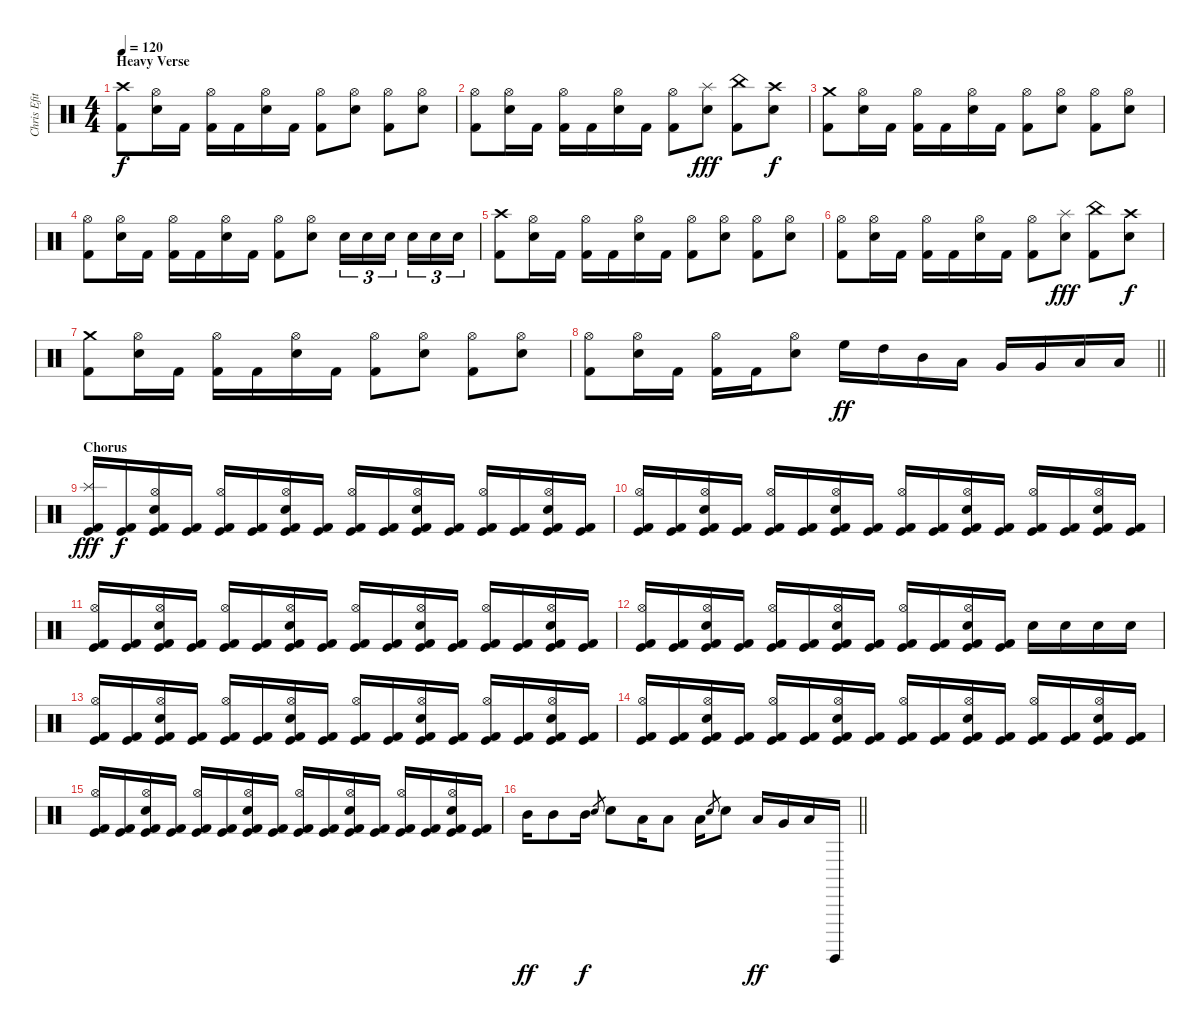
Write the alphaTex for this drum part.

\track ("Chris Efithimiadis (drums)" "Chris Efit") {instrument percussion}
\staff {score}
\articulation defaults
\ts (4 4)
\section ("" "Heavy Verse")
\tempo 120
\clef neutral
\ks c
("Crash high (hit)" "Kick (hit) 2").8{dy f} ("Hi-Hat (open)" "Snare (hit) 2").16 "Kick (hit) 2".16 ("Hi-Hat (open)" "Kick (hit) 2").16 "Kick (hit) 2".16 ("Hi-Hat (open)" "Snare (hit) 2").16 "Kick (hit) 2".16 ("Hi-Hat (open)" "Kick (hit) 2").8 ("Hi-Hat (open)" "Snare (hit) 2").8 ("Hi-Hat (open)" "Kick (hit) 2").8 ("Hi-Hat (open)" "Snare (hit) 2").8 |
("Hi-Hat (open)" "Kick (hit) 2").8 ("Hi-Hat (open)" "Snare (hit) 2").16 "Kick (hit) 2".16 ("Hi-Hat (open)" "Kick (hit) 2").16 "Kick (hit) 2".16 ("Hi-Hat (open)" "Snare (hit) 2").16 "Kick (hit) 2".16 ("Hi-Hat (open)" "Kick (hit) 2").8 ("Splash (hit)" "Snare (hit) 2").8{dy fff} ("China (hit)" "Kick (hit) 2").8 ("Crash high (hit)" "Snare (hit) 2").8{dy f} |
("Crash medium (hit)" "Kick (hit) 2").8 ("Hi-Hat (open)" "Snare (hit) 2").16 "Kick (hit) 2".16 ("Hi-Hat (open)" "Kick (hit) 2").16 "Kick (hit) 2".16 ("Hi-Hat (open)" "Snare (hit) 2").16 "Kick (hit) 2".16 ("Hi-Hat (open)" "Kick (hit) 2").8 ("Hi-Hat (open)" "Snare (hit) 2").8 ("Hi-Hat (open)" "Kick (hit) 2").8 ("Hi-Hat (open)" "Snare (hit) 2").8 |
("Hi-Hat (open)" "Kick (hit) 2").8 ("Hi-Hat (open)" "Snare (hit) 2").16 "Kick (hit) 2".16 ("Hi-Hat (open)" "Kick (hit) 2").16 "Kick (hit) 2".16 ("Hi-Hat (open)" "Snare (hit) 2").16 "Kick (hit) 2".16 ("Hi-Hat (open)" "Kick (hit) 2").8 ("Hi-Hat (open)" "Snare (hit) 2").8 "Snare (hit) 2".16{tu (3 2)} "Snare (hit) 2".16{tu (3 2)} "Snare (hit) 2".16{tu (3 2) beam splitsecondary} "Snare (hit) 2".16{tu (3 2)} "Snare (hit) 2".16{tu (3 2)} "Snare (hit) 2".16{tu (3 2)} |
("Crash high (hit)" "Kick (hit) 2").8 ("Hi-Hat (open)" "Snare (hit) 2").16 "Kick (hit) 2".16 ("Hi-Hat (open)" "Kick (hit) 2").16 "Kick (hit) 2".16 ("Hi-Hat (open)" "Snare (hit) 2").16 "Kick (hit) 2".16 ("Hi-Hat (open)" "Kick (hit) 2").8 ("Hi-Hat (open)" "Snare (hit) 2").8 ("Hi-Hat (open)" "Kick (hit) 2").8 ("Hi-Hat (open)" "Snare (hit) 2").8 |
("Hi-Hat (open)" "Kick (hit) 2").8 ("Hi-Hat (open)" "Snare (hit) 2").16 "Kick (hit) 2".16 ("Hi-Hat (open)" "Kick (hit) 2").16 "Kick (hit) 2".16 ("Hi-Hat (open)" "Snare (hit) 2").16 "Kick (hit) 2".16 ("Hi-Hat (open)" "Kick (hit) 2").8 ("Splash (hit)" "Snare (hit) 2").8{dy fff} ("China (hit)" "Kick (hit) 2").8 ("Crash high (hit)" "Snare (hit) 2").8{dy f} |
("Crash medium (hit)" "Kick (hit) 2").8 ("Hi-Hat (open)" "Snare (hit) 2").16 "Kick (hit) 2".16 ("Hi-Hat (open)" "Kick (hit) 2").16 "Kick (hit) 2".16 ("Hi-Hat (open)" "Snare (hit) 2").16 "Kick (hit) 2".16 ("Hi-Hat (open)" "Kick (hit) 2").8 ("Hi-Hat (open)" "Snare (hit) 2").8 ("Hi-Hat (open)" "Kick (hit) 2").8 ("Hi-Hat (open)" "Snare (hit) 2").8 |
\barLineRight lightlight
("Hi-Hat (open)" "Kick (hit) 2").8 ("Hi-Hat (open)" "Snare (hit) 2").16 "Kick (hit) 2".16 ("Hi-Hat (open)" "Kick (hit) 2").16 "Kick (hit) 2".16 ("Hi-Hat (open)" "Snare (hit) 2").8 "High Floor Tom (hit)".16{dy ff} "High Tom (hit)".16 "Mid Tom (hit)".16 "Low Tom (hit)".16 "Very Low Tom (hit)".16 "Very Low Tom (hit)".16 "Low Floor Tom (hit)".16 "Low Floor Tom (hit)".16 |
\section ("" "Chorus")
("Splash (hit)" "Kick (hit)" "Kick (hit) 2").16{dy fff} ("Kick (hit)" "Kick (hit) 2").16{dy f} ("Hi-Hat (open)" "Snare (hit) 2" "Kick (hit)" "Kick (hit) 2").16 ("Kick (hit)" "Kick (hit) 2").16 ("Hi-Hat (open)" "Kick (hit)" "Kick (hit) 2").16 ("Kick (hit)" "Kick (hit) 2").16 ("Hi-Hat (open)" "Snare (hit) 2" "Kick (hit)" "Kick (hit) 2").16 ("Kick (hit)" "Kick (hit) 2").16 ("Hi-Hat (open)" "Kick (hit)" "Kick (hit) 2").16 ("Kick (hit)" "Kick (hit) 2").16 ("Hi-Hat (open)" "Snare (hit) 2" "Kick (hit)" "Kick (hit) 2").16 ("Kick (hit)" "Kick (hit) 2").16 ("Hi-Hat (open)" "Kick (hit)" "Kick (hit) 2").16 ("Kick (hit)" "Kick (hit) 2").16 ("Hi-Hat (open)" "Snare (hit) 2" "Kick (hit)" "Kick (hit) 2").16 ("Kick (hit)" "Kick (hit) 2").16 |
("Hi-Hat (open)" "Kick (hit)" "Kick (hit) 2").16 ("Kick (hit)" "Kick (hit) 2").16 ("Hi-Hat (open)" "Snare (hit) 2" "Kick (hit)" "Kick (hit) 2").16 ("Kick (hit)" "Kick (hit) 2").16 ("Hi-Hat (open)" "Kick (hit)" "Kick (hit) 2").16 ("Kick (hit)" "Kick (hit) 2").16 ("Hi-Hat (open)" "Snare (hit) 2" "Kick (hit)" "Kick (hit) 2").16 ("Kick (hit)" "Kick (hit) 2").16 ("Hi-Hat (open)" "Kick (hit)" "Kick (hit) 2").16 ("Kick (hit)" "Kick (hit) 2").16 ("Hi-Hat (open)" "Snare (hit) 2" "Kick (hit)" "Kick (hit) 2").16 ("Kick (hit)" "Kick (hit) 2").16 ("Hi-Hat (open)" "Kick (hit)" "Kick (hit) 2").16 ("Kick (hit)" "Kick (hit) 2").16 ("Hi-Hat (open)" "Snare (hit) 2" "Kick (hit)" "Kick (hit) 2").16 ("Kick (hit)" "Kick (hit) 2").16 |
("Hi-Hat (open)" "Kick (hit)" "Kick (hit) 2").16 ("Kick (hit)" "Kick (hit) 2").16 ("Hi-Hat (open)" "Snare (hit) 2" "Kick (hit)" "Kick (hit) 2").16 ("Kick (hit)" "Kick (hit) 2").16 ("Hi-Hat (open)" "Kick (hit)" "Kick (hit) 2").16 ("Kick (hit)" "Kick (hit) 2").16 ("Hi-Hat (open)" "Snare (hit) 2" "Kick (hit)" "Kick (hit) 2").16 ("Kick (hit)" "Kick (hit) 2").16 ("Hi-Hat (open)" "Kick (hit)" "Kick (hit) 2").16 ("Kick (hit)" "Kick (hit) 2").16 ("Hi-Hat (open)" "Snare (hit) 2" "Kick (hit)" "Kick (hit) 2").16 ("Kick (hit)" "Kick (hit) 2").16 ("Hi-Hat (open)" "Kick (hit)" "Kick (hit) 2").16 ("Kick (hit)" "Kick (hit) 2").16 ("Hi-Hat (open)" "Snare (hit) 2" "Kick (hit)" "Kick (hit) 2").16 ("Kick (hit)" "Kick (hit) 2").16 |
("Hi-Hat (open)" "Kick (hit)" "Kick (hit) 2").16 ("Kick (hit)" "Kick (hit) 2").16 ("Hi-Hat (open)" "Snare (hit) 2" "Kick (hit)" "Kick (hit) 2").16 ("Kick (hit)" "Kick (hit) 2").16 ("Hi-Hat (open)" "Kick (hit)" "Kick (hit) 2").16 ("Kick (hit)" "Kick (hit) 2").16 ("Hi-Hat (open)" "Snare (hit) 2" "Kick (hit)" "Kick (hit) 2").16 ("Kick (hit)" "Kick (hit) 2").16 ("Hi-Hat (open)" "Kick (hit)" "Kick (hit) 2").16 ("Kick (hit)" "Kick (hit) 2").16 ("Hi-Hat (open)" "Snare (hit) 2" "Kick (hit)" "Kick (hit) 2").16 ("Kick (hit)" "Kick (hit) 2").16 "Snare (hit) 2".16 "Snare (hit) 2".16 "Snare (hit) 2".16 "Snare (hit) 2".16 |
("Hi-Hat (open)" "Kick (hit)" "Kick (hit) 2").16 ("Kick (hit)" "Kick (hit) 2").16 ("Hi-Hat (open)" "Snare (hit) 2" "Kick (hit)" "Kick (hit) 2").16 ("Kick (hit)" "Kick (hit) 2").16 ("Hi-Hat (open)" "Kick (hit)" "Kick (hit) 2").16 ("Kick (hit)" "Kick (hit) 2").16 ("Hi-Hat (open)" "Snare (hit) 2" "Kick (hit)" "Kick (hit) 2").16 ("Kick (hit)" "Kick (hit) 2").16 ("Hi-Hat (open)" "Kick (hit)" "Kick (hit) 2").16 ("Kick (hit)" "Kick (hit) 2").16 ("Hi-Hat (open)" "Snare (hit) 2" "Kick (hit)" "Kick (hit) 2").16 ("Kick (hit)" "Kick (hit) 2").16 ("Hi-Hat (open)" "Kick (hit)" "Kick (hit) 2").16 ("Kick (hit)" "Kick (hit) 2").16 ("Hi-Hat (open)" "Snare (hit) 2" "Kick (hit)" "Kick (hit) 2").16 ("Kick (hit)" "Kick (hit) 2").16 |
("Hi-Hat (open)" "Kick (hit)" "Kick (hit) 2").16 ("Kick (hit)" "Kick (hit) 2").16 ("Hi-Hat (open)" "Snare (hit) 2" "Kick (hit)" "Kick (hit) 2").16 ("Kick (hit)" "Kick (hit) 2").16 ("Hi-Hat (open)" "Kick (hit)" "Kick (hit) 2").16 ("Kick (hit)" "Kick (hit) 2").16 ("Hi-Hat (open)" "Snare (hit) 2" "Kick (hit)" "Kick (hit) 2").16 ("Kick (hit)" "Kick (hit) 2").16 ("Hi-Hat (open)" "Kick (hit)" "Kick (hit) 2").16 ("Kick (hit)" "Kick (hit) 2").16 ("Hi-Hat (open)" "Snare (hit) 2" "Kick (hit)" "Kick (hit) 2").16 ("Kick (hit)" "Kick (hit) 2").16 ("Hi-Hat (open)" "Kick (hit)" "Kick (hit) 2").16 ("Kick (hit)" "Kick (hit) 2").16 ("Hi-Hat (open)" "Snare (hit) 2" "Kick (hit)" "Kick (hit) 2").16 ("Kick (hit)" "Kick (hit) 2").16 |
("Hi-Hat (open)" "Kick (hit)" "Kick (hit) 2").16 ("Kick (hit)" "Kick (hit) 2").16 ("Hi-Hat (open)" "Snare (hit) 2" "Kick (hit)" "Kick (hit) 2").16 ("Kick (hit)" "Kick (hit) 2").16 ("Hi-Hat (open)" "Kick (hit)" "Kick (hit) 2").16 ("Kick (hit)" "Kick (hit) 2").16 ("Hi-Hat (open)" "Snare (hit) 2" "Kick (hit)" "Kick (hit) 2").16 ("Kick (hit)" "Kick (hit) 2").16 ("Hi-Hat (open)" "Kick (hit)" "Kick (hit) 2").16 ("Kick (hit)" "Kick (hit) 2").16 ("Hi-Hat (open)" "Snare (hit) 2" "Kick (hit)" "Kick (hit) 2").16 ("Kick (hit)" "Kick (hit) 2").16 ("Hi-Hat (open)" "Kick (hit)" "Kick (hit) 2").16 ("Kick (hit)" "Kick (hit) 2").16 ("Hi-Hat (open)" "Snare (hit) 2" "Kick (hit)" "Kick (hit) 2").16 ("Kick (hit)" "Kick (hit) 2").16 |
\barLineRight lightlight "Mid Tom (hit)".16{dy ff} "Mid Tom (hit)".8 "Mid Tom (hit)".16{dy f} "Snare (hit) 2".8{gr} "Snare (hit) 2".8 "Low Tom (hit)".16 "Low Tom (hit)".8 "Low Tom (hit)".16 "Snare (hit) 2".8{gr} "Snare (hit) 2".8 "Low Tom (hit)".16{dy ff} "Very Low Tom (hit)".16 "Low Floor Tom (hit)".16 "Surdo (hit)".16
